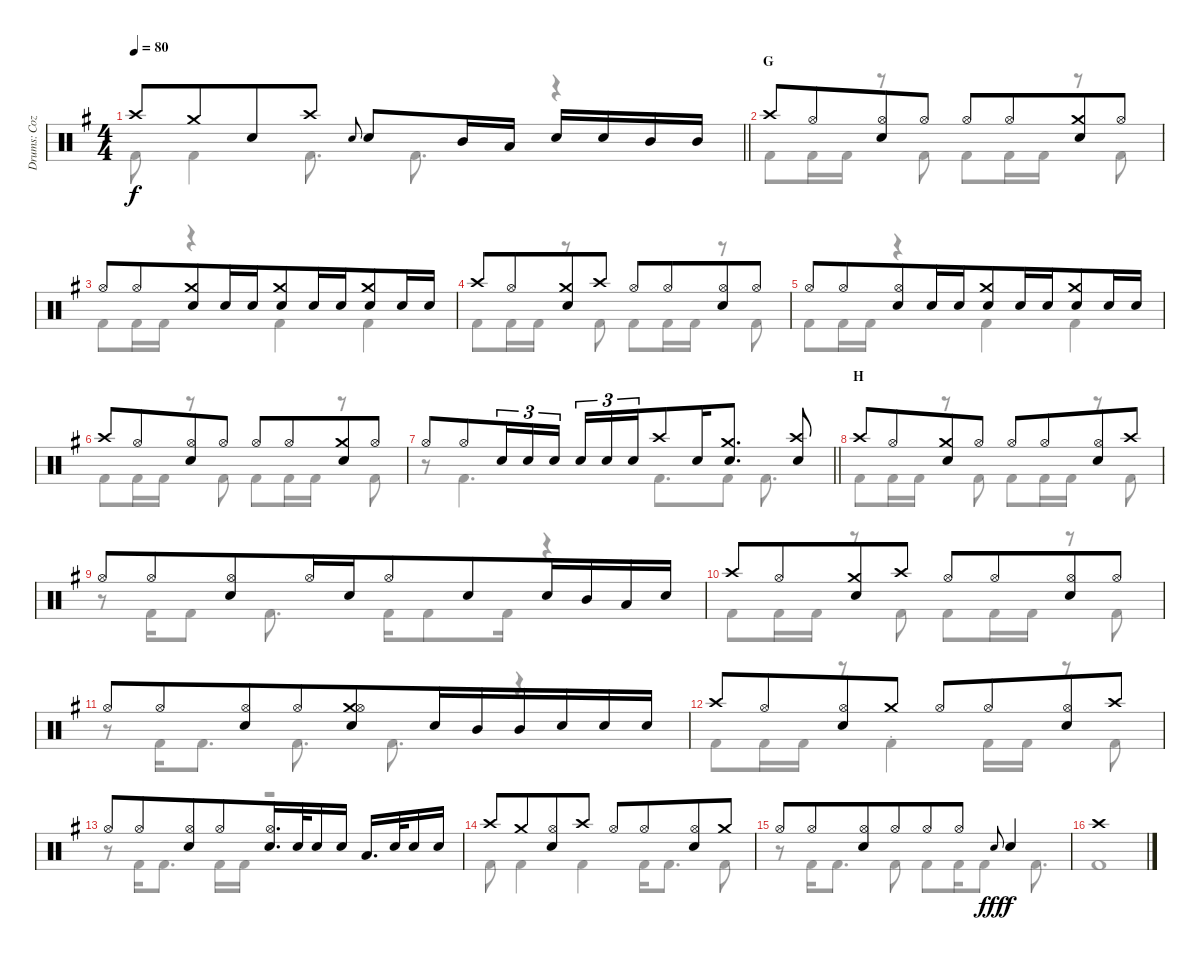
\track ("Drums: Cozy" "Drums: Coz") {instrument percussion}
\staff {score}
\articulation defaults
\voice
\ts (4 4)
\tempo 80
\clef neutral
\barLineRight lightlight
\ks g "Crash high (hit)".8{dy f} "Crash medium (hit)".8{beam merge} "Electric Snare (hit)".8 "Crash high (hit)".8 "Electric Snare (hit)".8{gr onbeat} "Snare (hit) 2".8 "Mid Tom (hit)".16 "Low Tom (hit)".16 "Electric Snare (hit)".16 "Electric Snare (hit)".16 "Mid Tom (hit)".16 "Mid Tom (hit)".16
|
\section ("" "G")
"Crash high (hit)".8 "Hi-Hat (open)".8{beam merge} ("Hi-Hat (open)" "Snare (hit) 2").8 "Hi-Hat (open)".8 "Hi-Hat (open)".8 "Hi-Hat (open)".8{beam merge} ("Crash medium (hit)" "Snare (hit) 2").8 "Hi-Hat (open)".8 |
"Hi-Hat (open)".8 "Hi-Hat (open)".8{beam merge} ("Crash medium (hit)" "Snare (hit) 2").8 "Electric Snare (hit)".16 "Electric Snare (hit)".16{beam merge} ("Crash medium (hit)" "Snare (hit) 2").8 "Electric Snare (hit)".16 "Electric Snare (hit)".16{beam merge} ("Crash medium (hit)" "Snare (hit) 2").8 "Electric Snare (hit)".16 "Electric Snare (hit)".16 |
"Crash high (hit)".8 "Hi-Hat (open)".8{beam merge} ("Crash medium (hit)" "Snare (hit) 2").8 "Crash high (hit)".8 "Hi-Hat (open)".8 "Hi-Hat (open)".8{beam merge} ("Hi-Hat (open)" "Snare (hit) 2").8 "Hi-Hat (open)".8 |
"Hi-Hat (open)".8 "Hi-Hat (open)".8{beam merge} ("Hi-Hat (open)" "Snare (hit) 2").8 "Electric Snare (hit)".16 "Electric Snare (hit)".16{beam merge} ("Crash medium (hit)" "Snare (hit) 2").8 "Electric Snare (hit)".16 "Electric Snare (hit)".16{beam merge} ("Crash medium (hit)" "Snare (hit) 2").8 "Electric Snare (hit)".16 "Electric Snare (hit)".16 |
"Crash high (hit)".8 "Hi-Hat (open)".8{beam merge} ("Hi-Hat (open)" "Snare (hit) 2").8 "Hi-Hat (open)".8 "Hi-Hat (open)".8 "Hi-Hat (open)".8{beam merge} ("Crash medium (hit)" "Snare (hit) 2").8 "Hi-Hat (open)".8 |
\barLineRight lightlight "Hi-Hat (open)".8 "Hi-Hat (open)".8{beam merge} "Snare (hit) 2".16{tu (3 2)} "Snare (hit) 2".16{tu (3 2)} "Snare (hit) 2".16{tu (3 2) beam splitsecondary} "Snare (hit) 2".16{tu (3 2)} "Snare (hit) 2".16{tu (3 2)} "Snare (hit) 2".16{tu (3 2) beam merge} "Crash high (hit)".8 "Electric Snare (hit)".16{beam merge}
("Crash medium (hit)" "Snare (hit) 2").8{d} ("Crash high (hit)" "Electric Snare (hit)").8 |
\section ("" "H")
"Crash high (hit)".8 "Hi-Hat (open)".8{beam merge} ("Crash medium (hit)" "Snare (hit) 2").8 "Hi-Hat (open)".8 "Hi-Hat (open)".8 "Hi-Hat (open)".8{beam merge} ("Hi-Hat (open)" "Snare (hit) 2").8 "Crash high (hit)".8 |
"Hi-Hat (open)".8 "Hi-Hat (open)".8{beam merge} ("Hi-Hat (open)" "Snare (hit) 2").8 "Hi-Hat (open)".16 "Electric Snare (hit)".16{beam merge} "Hi-Hat (open)".8 "Electric Snare (hit)".8{beam merge} "Electric Snare (hit)".16 "Mid Tom (hit)".16 "Low Tom (hit)".16 "Electric Snare (hit)".16 |
"Crash high (hit)".8 "Hi-Hat (open)".8{beam merge} ("Crash medium (hit)" "Snare (hit) 2").8 "Crash high (hit)".8 "Hi-Hat (open)".8 "Hi-Hat (open)".8{beam merge} ("Hi-Hat (open)" "Snare (hit) 2").8 "Hi-Hat (open)".8 |
"Hi-Hat (open)".8 "Hi-Hat (open)".8{beam merge} ("Hi-Hat (open)" "Snare (hit) 2").8 "Hi-Hat (open)".8{beam merge} ("Crash medium (hit)" "Hi-Hat (open)" "Snare (hit) 2").8 "Electric Snare (hit)".16 "Mid Tom (hit)".16{beam merge} "Mid Tom (hit)".16 "Electric Snare (hit)".16 "Electric Snare (hit)".16 "Electric Snare (hit)".16 |
"Crash high (hit)".8 "Hi-Hat (open)".8{beam merge} ("Hi-Hat (open)" "Snare (hit) 2").8 "Crash medium (hit)".8 "Hi-Hat (open)".8 "Hi-Hat (open)".8{beam merge} ("Hi-Hat (open)" "Snare (hit) 2").8 "Crash high (hit)".8 |
"Hi-Hat (open)".8 "Hi-Hat (open)".8{beam merge} ("Hi-Hat (open)" "Snare (hit) 2").8 "Hi-Hat (open)".8{beam merge} ("Hi-Hat (open)" "Electric Snare (hit)").16{d} "Electric Snare (hit)".32{beam merge} "Electric Snare (hit)".16{beam merge} "Electric Snare (hit)".16 "Low Tom (hit)".16{d} "Electric Snare (hit)".32 "Electric Snare (hit)".16 "Electric Snare (hit)".16 |
"Crash high (hit)".8 "Crash medium (hit)".8{beam merge} ("Hi-Hat (open)" "Snare (hit) 2").8 "Crash high (hit)".8 "Hi-Hat (open)".8 "Hi-Hat (open)".8{beam merge} ("Hi-Hat (open)" "Snare (hit) 2").8 "Crash medium (hit)".8 |
"Hi-Hat (open)".8 "Hi-Hat (open)".8{beam merge} ("Hi-Hat (open)" "Snare (hit) 2").8 "Hi-Hat (open)".8{beam merge} "Hi-Hat (open)".8 "Hi-Hat (open)".8 "Electric Snare (hit)".8{gr onbeat dy fff} "Snare (hit) 2".4{dy f} |
"Crash high (hit)".1
\voice
\clef neutral
\ottava regular
\simile none
\barLineRight lightlight
\ks g "Kick (hit) 2".8{dy f} "Kick (hit) 2".4 "Kick (hit) 2".8{d} "Kick (hit) 2".8{d}
r.4 |
"Kick (hit) 2".8 "Kick (hit) 2".16 "Kick (hit) 2".16 r.8 "Kick (hit) 2".8 "Kick (hit) 2".8 "Kick (hit) 2".16 "Kick (hit) 2".16 r.8 "Kick (hit) 2".8 |
"Kick (hit) 2".8 "Kick (hit) 2".16 "Kick (hit) 2".16 r.4 "Kick (hit) 2".4 "Kick (hit) 2".4 |
"Kick (hit) 2".8 "Kick (hit) 2".16 "Kick (hit) 2".16 r.8 "Kick (hit) 2".8 "Kick (hit) 2".8 "Kick (hit) 2".16 "Kick (hit) 2".16 r.8 "Kick (hit) 2".8 |
"Kick (hit) 2".8 "Kick (hit) 2".16 "Kick (hit) 2".16 r.4 "Kick (hit) 2".4 "Kick (hit) 2".4 |
"Kick (hit) 2".8 "Kick (hit) 2".16 "Kick (hit) 2".16 r.8 "Kick (hit) 2".8 "Kick (hit) 2".8 "Kick (hit) 2".16 "Kick (hit) 2".16 r.8 "Kick (hit) 2".8 |
\barLineRight lightlight
r.8 "Kick (hit) 2".4{d} "Kick (hit) 2".8{d} "Kick (hit) 2".8 "Kick (hit) 2".8{d} |
"Kick (hit) 2".8 "Kick (hit) 2".16 "Kick (hit) 2".16 r.8 "Kick (hit) 2".8 "Kick (hit) 2".8 "Kick (hit) 2".16 "Kick (hit) 2".16 r.8 "Kick (hit) 2".8 |
r.8 "Kick (hit) 2".16 "Kick (hit) 2".8 "Kick (hit) 2".8{d} "Kick (hit) 2".16 "Kick (hit) 2".8 "Kick (hit) 2".16 r.4 |
"Kick (hit) 2".8 "Kick (hit) 2".16 "Kick (hit) 2".16 r.8 "Kick (hit) 2".8 "Kick (hit) 2".8 "Kick (hit) 2".16 "Kick (hit) 2".16 r.8 "Kick (hit) 2".8 |
r.8 "Kick (hit) 2".16 "Kick (hit) 2".8{d} "Kick (hit) 2".8{d} "Kick (hit) 2".8{d} r.4 |
"Kick (hit) 2".8 "Kick (hit) 2".16 "Kick (hit) 2".16 r.8 "Kick (hit) 2"{st}.4 "Kick (hit) 2".16 "Kick (hit) 2".16 r.8 "Kick (hit) 2".8 |
r.8 "Kick (hit) 2".16 "Kick (hit) 2".8{d} "Kick (hit) 2".16 "Kick (hit) 2".16 r.2 |
"Kick (hit) 2".8 "Kick (hit) 2".4 "Kick (hit) 2".4 "Kick (hit) 2".16 "Kick (hit) 2".8{d} "Kick (hit) 2".8 |
r.8 "Kick (hit) 2".16 "Kick (hit) 2".8{d} "Kick (hit) 2".8 "Kick (hit) 2".8 "Kick (hit) 2".16 "Kick (hit) 2".8 "Kick (hit) 2".8{d} |
"Kick (hit) 2".1
